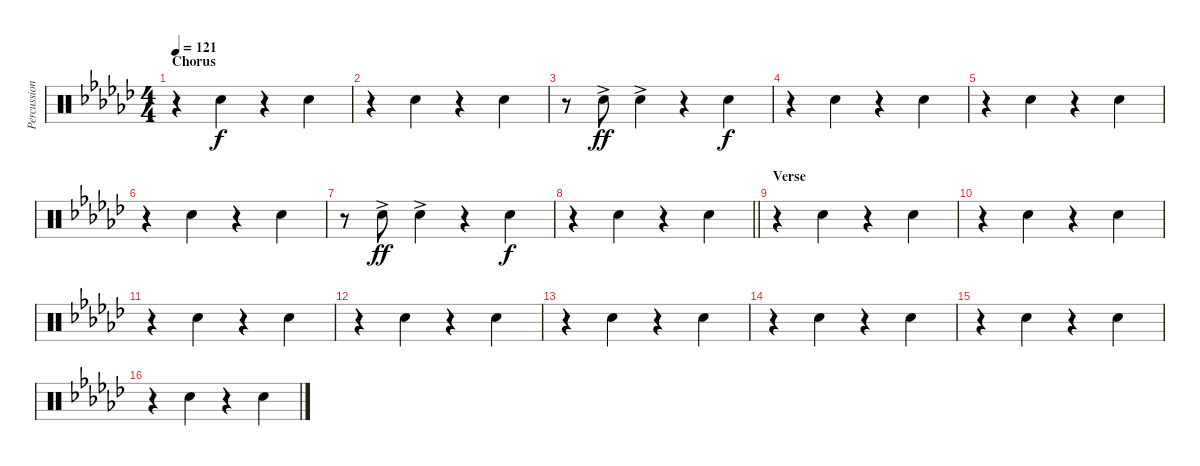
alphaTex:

\track ("Percussion" "Percussion") {instrument percussion}
\staff {score}
\articulation defaults
\ts (4 4)
\section ("" "Chorus")
\tempo 121
\clef neutral
\ks ebminor
r.4{dy f} "Hand Clap (hit)".4 r.4 "Hand Clap (hit)".4 |
r.4 "Hand Clap (hit)".4 r.4 "Hand Clap (hit)".4 |
r.8 "Hand Clap (hit)"{ac}.8{dy ff} "Hand Clap (hit)"{ac}.4 r.4 "Hand Clap (hit)".4{dy f} |
r.4 "Hand Clap (hit)".4 r.4 "Hand Clap (hit)".4 |
r.4 "Hand Clap (hit)".4 r.4 "Hand Clap (hit)".4 |
r.4 "Hand Clap (hit)".4 r.4 "Hand Clap (hit)".4 |
r.8 "Hand Clap (hit)"{ac}.8{dy ff} "Hand Clap (hit)"{ac}.4 r.4 "Hand Clap (hit)".4{dy f} |
\barLineRight lightlight
r.4 "Hand Clap (hit)".4 r.4 "Hand Clap (hit)".4 |
\section ("" "Verse")
r.4 "Hand Clap (hit)".4 r.4 "Hand Clap (hit)".4 |
r.4 "Hand Clap (hit)".4 r.4 "Hand Clap (hit)".4 |
r.4 "Hand Clap (hit)".4 r.4 "Hand Clap (hit)".4 |
r.4 "Hand Clap (hit)".4 r.4 "Hand Clap (hit)".4 |
r.4 "Hand Clap (hit)".4 r.4 "Hand Clap (hit)".4 |
r.4 "Hand Clap (hit)".4 r.4 "Hand Clap (hit)".4 |
r.4 "Hand Clap (hit)".4 r.4 "Hand Clap (hit)".4 |
r.4 "Hand Clap (hit)".4 r.4 "Hand Clap (hit)".4
